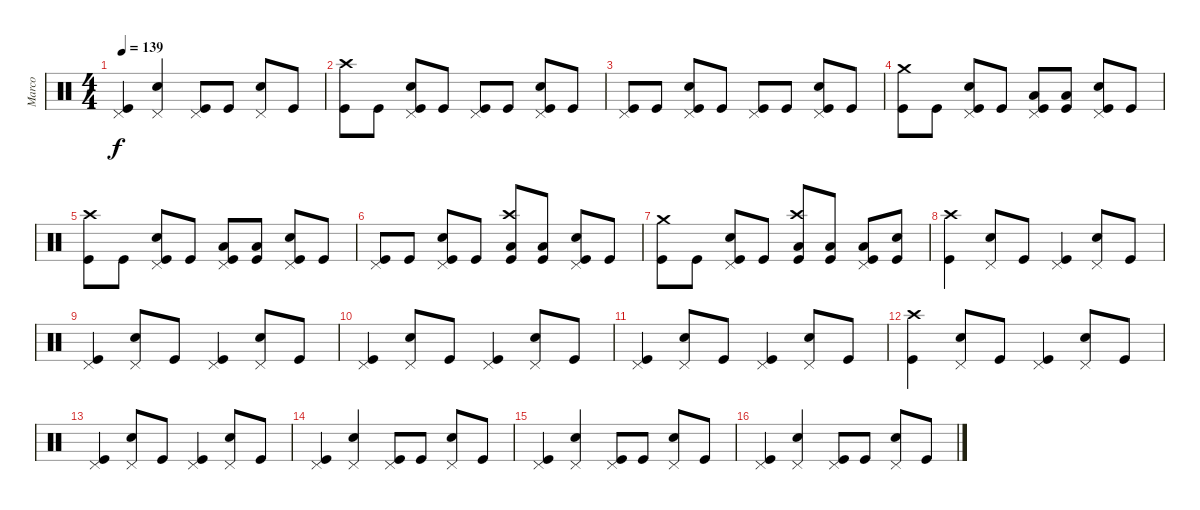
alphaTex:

\track ("Marco" "Marco") {instrument percussion}
\staff {score}
\articulation defaults
\ts (4 4)
\tempo 139
\clef neutral
\ks c
("Pedal Hi-Hat (hit)" "Kick (hit)").4{dy f} ("Pedal Hi-Hat (hit)" "Snare (hit) 2").4 ("Pedal Hi-Hat (hit)" "Kick (hit)").8 "Kick (hit)".8 ("Pedal Hi-Hat (hit)" "Snare (hit) 2").8 "Kick (hit)".8 |
("Crash high (hit)" "Kick (hit)").8 "Kick (hit)".8 ("Pedal Hi-Hat (hit)" "Snare (hit) 2" "Kick (hit)").8 "Kick (hit)".8 ("Pedal Hi-Hat (hit)" "Kick (hit)").8 "Kick (hit)".8 ("Pedal Hi-Hat (hit)" "Snare (hit) 2" "Kick (hit)").8 "Kick (hit)".8 |
("Pedal Hi-Hat (hit)" "Kick (hit)").8 "Kick (hit)".8 ("Pedal Hi-Hat (hit)" "Snare (hit) 2" "Kick (hit)").8 "Kick (hit)".8 ("Pedal Hi-Hat (hit)" "Kick (hit)").8 "Kick (hit)".8 ("Pedal Hi-Hat (hit)" "Snare (hit) 2" "Kick (hit)").8 "Kick (hit)".8 |
("Crash medium (hit)" "Kick (hit)").8 "Kick (hit)".8 ("Pedal Hi-Hat (hit)" "Snare (hit) 2" "Kick (hit)").8 "Kick (hit)".8 ("Pedal Hi-Hat (hit)" "Low Tom (hit)" "Kick (hit)").8 ("Low Tom (hit)" "Kick (hit)").8 ("Pedal Hi-Hat (hit)" "Snare (hit) 2" "Kick (hit)").8 "Kick (hit)".8 |
("Crash high (hit)" "Kick (hit)").8 "Kick (hit)".8 ("Pedal Hi-Hat (hit)" "Snare (hit) 2" "Kick (hit)").8 "Kick (hit)".8 ("Pedal Hi-Hat (hit)" "Low Tom (hit)" "Kick (hit)").8 ("Low Tom (hit)" "Kick (hit)").8 ("Pedal Hi-Hat (hit)" "Snare (hit) 2" "Kick (hit)").8 "Kick (hit)".8 |
("Pedal Hi-Hat (hit)" "Kick (hit)").8 "Kick (hit)".8 ("Pedal Hi-Hat (hit)" "Snare (hit) 2" "Kick (hit)").8 "Kick (hit)".8 ("Crash high (hit)" "Low Tom (hit)" "Kick (hit)").8 ("Low Tom (hit)" "Kick (hit)").8 ("Pedal Hi-Hat (hit)" "Snare (hit) 2" "Kick (hit)").8 "Kick (hit)".8 |
\section ("" "")
("Crash medium (hit)" "Kick (hit)").8 "Kick (hit)".8 ("Pedal Hi-Hat (hit)" "Snare (hit) 2" "Kick (hit)").8 "Kick (hit)".8 ("Crash high (hit)" "Low Tom (hit)" "Kick (hit)").8 ("Low Tom (hit)" "Kick (hit)").8 ("Pedal Hi-Hat (hit)" "Low Tom (hit)" "Kick (hit)").8 ("Snare (hit) 2" "Kick (hit)").8 |
("Crash high (hit)" "Kick (hit)").4 ("Pedal Hi-Hat (hit)" "Snare (hit) 2").8 "Kick (hit)".8 ("Pedal Hi-Hat (hit)" "Kick (hit)").4 ("Pedal Hi-Hat (hit)" "Snare (hit) 2").8 "Kick (hit)".8 |
("Pedal Hi-Hat (hit)" "Kick (hit)").4 ("Pedal Hi-Hat (hit)" "Snare (hit) 2").8 "Kick (hit)".8 ("Pedal Hi-Hat (hit)" "Kick (hit)").4 ("Pedal Hi-Hat (hit)" "Snare (hit) 2").8 "Kick (hit)".8 |
("Pedal Hi-Hat (hit)" "Kick (hit)").4 ("Pedal Hi-Hat (hit)" "Snare (hit) 2").8 "Kick (hit)".8 ("Pedal Hi-Hat (hit)" "Kick (hit)").4 ("Pedal Hi-Hat (hit)" "Snare (hit) 2").8 "Kick (hit)".8 |
("Pedal Hi-Hat (hit)" "Kick (hit)").4 ("Pedal Hi-Hat (hit)" "Snare (hit) 2").8 "Kick (hit)".8 ("Pedal Hi-Hat (hit)" "Kick (hit)").4 ("Pedal Hi-Hat (hit)" "Snare (hit) 2").8 "Kick (hit)".8 |
("Crash high (hit)" "Kick (hit)").4 ("Pedal Hi-Hat (hit)" "Snare (hit) 2").8 "Kick (hit)".8 ("Pedal Hi-Hat (hit)" "Kick (hit)").4 ("Pedal Hi-Hat (hit)" "Snare (hit) 2").8 "Kick (hit)".8 |
("Pedal Hi-Hat (hit)" "Kick (hit)").4 ("Pedal Hi-Hat (hit)" "Snare (hit) 2").8 "Kick (hit)".8 ("Pedal Hi-Hat (hit)" "Kick (hit)").4 ("Pedal Hi-Hat (hit)" "Snare (hit) 2").8 "Kick (hit)".8 |
("Pedal Hi-Hat (hit)" "Kick (hit)").4 ("Pedal Hi-Hat (hit)" "Snare (hit) 2").4 ("Pedal Hi-Hat (hit)" "Kick (hit)").8 "Kick (hit)".8 ("Pedal Hi-Hat (hit)" "Snare (hit) 2").8 "Kick (hit)".8 |
("Pedal Hi-Hat (hit)" "Kick (hit)").4 ("Pedal Hi-Hat (hit)" "Snare (hit) 2").4 ("Pedal Hi-Hat (hit)" "Kick (hit)").8 "Kick (hit)".8 ("Pedal Hi-Hat (hit)" "Snare (hit) 2").8 "Kick (hit)".8 |
("Pedal Hi-Hat (hit)" "Kick (hit)").4 ("Pedal Hi-Hat (hit)" "Snare (hit) 2").4 ("Pedal Hi-Hat (hit)" "Kick (hit)").8 "Kick (hit)".8 ("Pedal Hi-Hat (hit)" "Snare (hit) 2").8 "Kick (hit)".8
